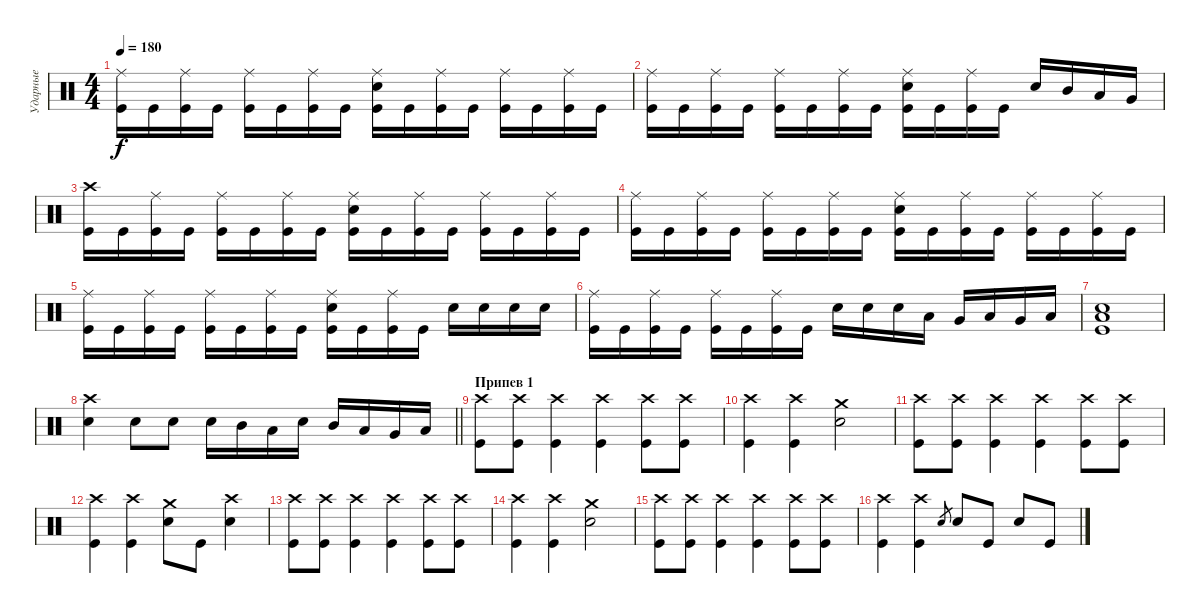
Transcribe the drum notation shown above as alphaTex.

\track ("Ударные" "Ударные") {instrument percussion}
\staff {score}
\articulation defaults
\ts (4 4)
\tempo 180
\clef neutral
\ks c
("Kick (hit)" "Ride (middle)").16{dy f} "Kick (hit)".16 ("Kick (hit)" "Ride (middle)").16 "Kick (hit)".16 ("Kick (hit)" "Ride (middle)").16 "Kick (hit)".16 ("Kick (hit)" "Ride (middle)").16 "Kick (hit)".16 ("Kick (hit)" "Ride (middle)" "Snare (hit) 2").16 "Kick (hit)".16 ("Kick (hit)" "Ride (middle)").16 "Kick (hit)".16 ("Kick (hit)" "Ride (middle)").16 "Kick (hit)".16 ("Kick (hit)" "Ride (middle)").16 "Kick (hit)".16 |
("Kick (hit)" "Ride (middle)").16 "Kick (hit)".16 ("Kick (hit)" "Ride (middle)").16 "Kick (hit)".16 ("Kick (hit)" "Ride (middle)").16 "Kick (hit)".16 ("Kick (hit)" "Ride (middle)").16 "Kick (hit)".16 ("Kick (hit)" "Ride (middle)" "Snare (hit) 2").16 "Kick (hit)".16 ("Kick (hit)" "Ride (middle)").16 "Kick (hit)".16 "Snare (hit) 2".16 "Mid Tom (hit)".16 "Low Tom (hit)".16 "Very Low Tom (hit)".16 |
("Kick (hit)" "Crash high (hit)").16 "Kick (hit)".16 ("Kick (hit)" "Ride (middle)").16 "Kick (hit)".16 ("Kick (hit)" "Ride (middle)").16 "Kick (hit)".16 ("Kick (hit)" "Ride (middle)").16 "Kick (hit)".16 ("Kick (hit)" "Ride (middle)" "Snare (hit) 2").16 "Kick (hit)".16 ("Kick (hit)" "Ride (middle)").16 "Kick (hit)".16 ("Kick (hit)" "Ride (middle)").16 "Kick (hit)".16 ("Kick (hit)" "Ride (middle)").16 "Kick (hit)".16 |
("Kick (hit)" "Ride (middle)").16 "Kick (hit)".16 ("Kick (hit)" "Ride (middle)").16 "Kick (hit)".16 ("Kick (hit)" "Ride (middle)").16 "Kick (hit)".16 ("Kick (hit)" "Ride (middle)").16 "Kick (hit)".16 ("Kick (hit)" "Ride (middle)" "Snare (hit) 2").16 "Kick (hit)".16 ("Kick (hit)" "Ride (middle)").16 "Kick (hit)".16 ("Kick (hit)" "Ride (middle)").16 "Kick (hit)".16 ("Kick (hit)" "Ride (middle)").16 "Kick (hit)".16 |
("Kick (hit)" "Ride (middle)").16 "Kick (hit)".16 ("Kick (hit)" "Ride (middle)").16 "Kick (hit)".16 ("Kick (hit)" "Ride (middle)").16 "Kick (hit)".16 ("Kick (hit)" "Ride (middle)").16 "Kick (hit)".16 ("Kick (hit)" "Ride (middle)" "Snare (hit) 2").16 "Kick (hit)".16 ("Kick (hit)" "Ride (middle)").16 "Kick (hit)".16 "Snare (hit) 2".16 "Snare (hit) 2".16 "Snare (hit) 2".16 "Snare (hit) 2".16 |
("Kick (hit)" "Ride (middle)").16 "Kick (hit)".16 ("Kick (hit)" "Ride (middle)").16 "Kick (hit)".16 ("Kick (hit)" "Ride (middle)").16 "Kick (hit)".16 ("Kick (hit)" "Ride (middle)").16 "Kick (hit)".16 "Snare (hit) 2".16 "Snare (hit) 2".16 "Snare (hit) 2".16 "Low Tom (hit)".16 "Very Low Tom (hit)".16 "Low Tom (hit)".16 "Very Low Tom (hit)".16 "Low Floor Tom (hit)".16 |
("Kick (hit)" "Snare (hit) 2" "Low Floor Tom (hit)").1 |
\barLineRight lightlight
("Snare (hit) 2" "Crash high (hit)").4 "Snare (hit) 2".8 "Snare (hit) 2".8 "Snare (hit) 2".16 "Mid Tom (hit)".16 "Low Tom (hit)".16 "Snare (hit) 2".16 "Mid Tom (hit)".16 "Low Tom (hit)".16 "Very Low Tom (hit)".16 "Low Floor Tom (hit)".16 |
\section ("" "Припев 1")
("Kick (hit)" "Crash high (hit)").8 ("Crash high (hit)" "Kick (hit)").8 ("Kick (hit)" "Crash high (hit)").4 ("Kick (hit)" "Crash high (hit)").4 ("Kick (hit)" "Crash high (hit)").8 ("Kick (hit)" "Crash high (hit)").8 |
("Kick (hit)" "Crash high (hit)").4 ("Kick (hit)" "Crash high (hit)").4 ("Snare (hit) 2" "Crash medium (hit)").2 |
("Kick (hit)" "Crash high (hit)").8 ("Crash high (hit)" "Kick (hit)").8 ("Kick (hit)" "Crash high (hit)").4 ("Kick (hit)" "Crash high (hit)").4 ("Kick (hit)" "Crash high (hit)").8 ("Kick (hit)" "Crash high (hit)").8 |
("Kick (hit)" "Crash high (hit)").4 ("Kick (hit)" "Crash high (hit)").4 ("Snare (hit) 2" "Crash medium (hit)").8 "Kick (hit)".8 ("Snare (hit) 2" "Crash high (hit)").4 |
("Kick (hit)" "Crash high (hit)").8 ("Crash high (hit)" "Kick (hit)").8 ("Kick (hit)" "Crash high (hit)").4 ("Kick (hit)" "Crash high (hit)").4 ("Kick (hit)" "Crash high (hit)").8 ("Kick (hit)" "Crash high (hit)").8 |
("Kick (hit)" "Crash high (hit)").4 ("Kick (hit)" "Crash high (hit)").4 ("Snare (hit) 2" "Crash medium (hit)").2 |
("Kick (hit)" "Crash high (hit)").8 ("Crash high (hit)" "Kick (hit)").8 ("Kick (hit)" "Crash high (hit)").4 ("Kick (hit)" "Crash high (hit)").4 ("Kick (hit)" "Crash high (hit)").8 ("Kick (hit)" "Crash high (hit)").8 |
("Kick (hit)" "Crash high (hit)").4 ("Kick (hit)" "Crash high (hit)").4 "Snare (hit) 2".8{gr} "Snare (hit) 2".8 "Kick (hit)".8 "Snare (hit) 2".8 "Kick (hit)".8
